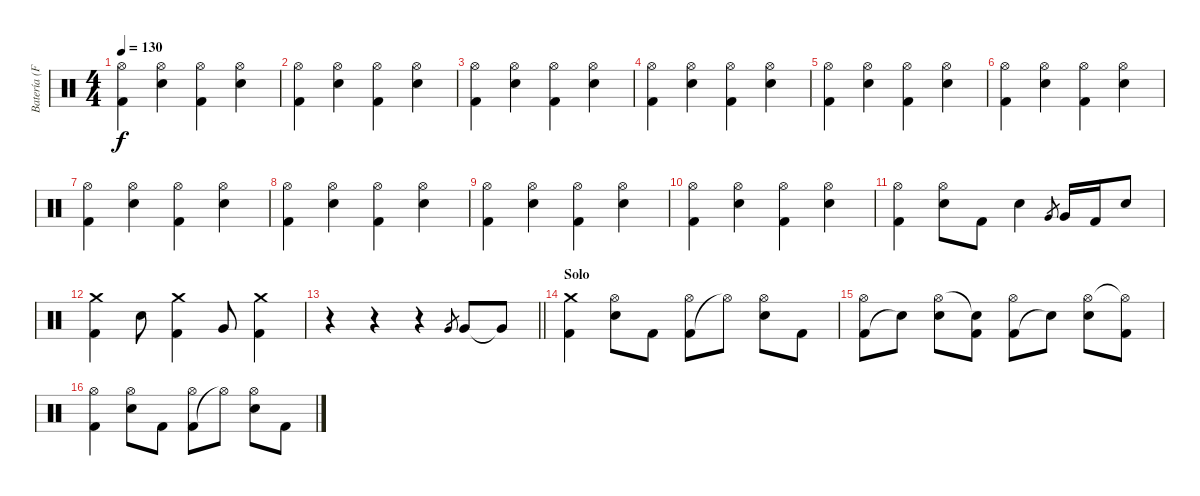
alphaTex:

\track ("Batería (F. Scarcella)" "Batería (F") {instrument percussion}
\staff {score}
\articulation defaults
\ts (4 4)
\tempo 130
\clef neutral
\ks c
("Kick (hit) 2" "Hi-Hat (open)").4{dy f} ("Snare (hit) 2" "Hi-Hat (open)").4 ("Kick (hit) 2" "Hi-Hat (open)").4 ("Snare (hit) 2" "Hi-Hat (open)").4 |
("Kick (hit) 2" "Hi-Hat (open)").4 ("Snare (hit) 2" "Hi-Hat (open)").4 ("Kick (hit) 2" "Hi-Hat (open)").4 ("Snare (hit) 2" "Hi-Hat (open)").4 |
("Kick (hit) 2" "Hi-Hat (open)").4 ("Snare (hit) 2" "Hi-Hat (open)").4 ("Kick (hit) 2" "Hi-Hat (open)").4 ("Snare (hit) 2" "Hi-Hat (open)").4 |
("Kick (hit) 2" "Hi-Hat (open)").4 ("Snare (hit) 2" "Hi-Hat (open)").4 ("Kick (hit) 2" "Hi-Hat (open)").4 ("Snare (hit) 2" "Hi-Hat (open)").4 |
("Kick (hit) 2" "Hi-Hat (open)").4 ("Snare (hit) 2" "Hi-Hat (open)").4 ("Kick (hit) 2" "Hi-Hat (open)").4 ("Snare (hit) 2" "Hi-Hat (open)").4 |
("Kick (hit) 2" "Hi-Hat (open)").4 ("Snare (hit) 2" "Hi-Hat (open)").4 ("Kick (hit) 2" "Hi-Hat (open)").4 ("Snare (hit) 2" "Hi-Hat (open)").4 |
("Kick (hit) 2" "Hi-Hat (open)").4 ("Snare (hit) 2" "Hi-Hat (open)").4 ("Kick (hit) 2" "Hi-Hat (open)").4 ("Snare (hit) 2" "Hi-Hat (open)").4 |
("Kick (hit) 2" "Hi-Hat (open)").4 ("Snare (hit) 2" "Hi-Hat (open)").4 ("Kick (hit) 2" "Hi-Hat (open)").4 ("Snare (hit) 2" "Hi-Hat (open)").4 |
("Kick (hit) 2" "Hi-Hat (open)").4 ("Snare (hit) 2" "Hi-Hat (open)").4 ("Kick (hit) 2" "Hi-Hat (open)").4 ("Snare (hit) 2" "Hi-Hat (open)").4 |
("Kick (hit) 2" "Hi-Hat (open)").4 ("Snare (hit) 2" "Hi-Hat (open)").4 ("Kick (hit) 2" "Hi-Hat (open)").4 ("Snare (hit) 2" "Hi-Hat (open)").4 |
("Kick (hit) 2" "Hi-Hat (open)").4 ("Snare (hit) 2" "Hi-Hat (open)").8 "Kick (hit) 2".8 "Snare (hit) 2".4 "Very Low Tom (hit)".8{gr} "Very Low Tom (hit)".16 "Kick (hit) 2".16 "Snare (hit) 2".8 |
("Kick (hit) 2" "Crash medium (hit)").4 "Snare (hit) 2".8 ("Kick (hit) 2" "Crash medium (hit)").4 "Very Low Tom (hit)".8 ("Kick (hit) 2" "Crash medium (hit)").4 |
\barLineRight lightlight
r.4 r.4 r.4 "Very Low Tom (hit)".8{gr} "Very Low Tom (hit)".8 "Very Low Tom (hit)"{t}.8 |
\section ("" "Solo")
("Kick (hit) 2" "Crash medium (hit)").4 ("Snare (hit) 2" "Hi-Hat (open)").8 "Kick (hit) 2".8 ("Kick (hit) 2" "Hi-Hat (open)").8 "Hi-Hat (open)"{t}.8 ("Snare (hit) 2" "Hi-Hat (open)").8 "Kick (hit) 2".8 |
("Kick (hit) 2" "Hi-Hat (open)").8 "Snare (hit)"{t}.8 ("Snare (hit) 2" "Hi-Hat (open)").8 ("Kick (hit) 2" "Snare (hit)"{t}).8 ("Kick (hit) 2" "Hi-Hat (open)").8 "Snare (hit)"{t}.8 ("Snare (hit) 2" "Hi-Hat (open)").8 ("Kick (hit) 2" "Hi-Hat (open)"{t}).8 |
("Kick (hit) 2" "Hi-Hat (open)").4 ("Snare (hit) 2" "Hi-Hat (open)").8 "Kick (hit) 2".8 ("Kick (hit) 2" "Hi-Hat (open)").8 "Hi-Hat (open)"{t}.8 ("Snare (hit) 2" "Hi-Hat (open)").8 "Kick (hit) 2".8
